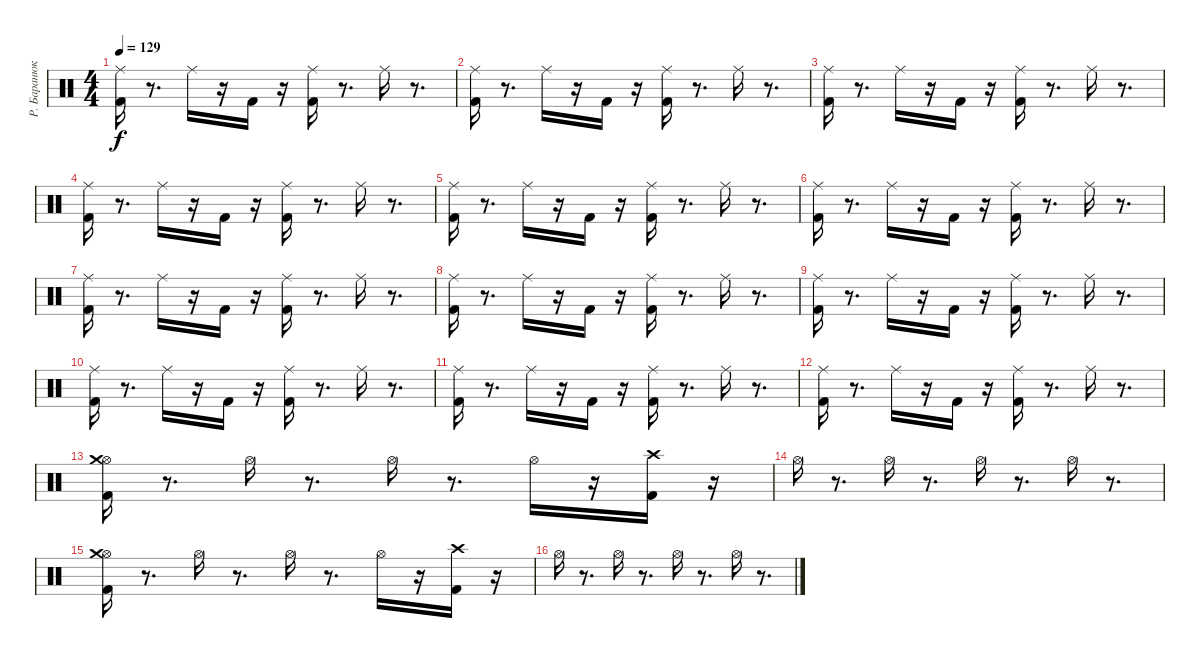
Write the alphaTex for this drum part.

\track ("Р. Баранюк" "Р. Баранюк") {instrument percussion}
\staff {score}
\articulation defaults
\ts (4 4)
\tempo 129
\clef neutral
\ks c
("Kick (hit) 2" "Ride (middle)").16{dy f} r.8{d} "Ride (middle)".16 r.16 "Kick (hit) 2".16 r.16 ("Kick (hit) 2" "Ride (middle)").16 r.8{d} "Ride (middle)".16 r.8{d} |
("Kick (hit) 2" "Ride (middle)").16 r.8{d} "Ride (middle)".16 r.16 "Kick (hit) 2".16 r.16 ("Kick (hit) 2" "Ride (middle)").16 r.8{d} "Ride (middle)".16 r.8{d} |
("Kick (hit) 2" "Ride (middle)").16 r.8{d} "Ride (middle)".16 r.16 "Kick (hit) 2".16 r.16 ("Kick (hit) 2" "Ride (middle)").16 r.8{d} "Ride (middle)".16 r.8{d} |
("Kick (hit) 2" "Ride (middle)").16 r.8{d} "Ride (middle)".16 r.16 "Kick (hit) 2".16 r.16 ("Kick (hit) 2" "Ride (middle)").16 r.8{d} "Ride (middle)".16 r.8{d} |
("Kick (hit) 2" "Ride (middle)").16 r.8{d} "Ride (middle)".16 r.16 "Kick (hit) 2".16 r.16 ("Kick (hit) 2" "Ride (middle)").16 r.8{d} "Ride (middle)".16 r.8{d} |
("Kick (hit) 2" "Ride (middle)").16 r.8{d} "Ride (middle)".16 r.16 "Kick (hit) 2".16 r.16 ("Kick (hit) 2" "Ride (middle)").16 r.8{d} "Ride (middle)".16 r.8{d} |
("Kick (hit) 2" "Ride (middle)").16 r.8{d} "Ride (middle)".16 r.16 "Kick (hit) 2".16 r.16 ("Kick (hit) 2" "Ride (middle)").16 r.8{d} "Ride (middle)".16 r.8{d} |
("Ride (middle)" "Kick (hit) 2").16 r.8{d} "Ride (middle)".16 r.16 "Kick (hit) 2".16 r.16 ("Kick (hit) 2" "Ride (middle)").16 r.8{d} "Ride (middle)".16 r.8{d} |
("Kick (hit) 2" "Ride (middle)").16 r.8{d} "Ride (middle)".16 r.16 "Kick (hit) 2".16 r.16 ("Ride (middle)" "Kick (hit) 2").16 r.8{d} "Ride (middle)".16 r.8{d} |
("Kick (hit) 2" "Ride (middle)").16 r.8{d} "Ride (middle)".16 r.16 "Kick (hit) 2".16 r.16 ("Ride (middle)" "Kick (hit) 2").16 r.8{d} "Ride (middle)".16 r.8{d} |
("Kick (hit) 2" "Ride (middle)").16 r.8{d} "Ride (middle)".16 r.16 "Kick (hit) 2".16 r.16 ("Ride (middle)" "Kick (hit) 2").16 r.8{d} "Ride (middle)".16 r.8{d} |
("Ride (middle)" "Kick (hit) 2").16 r.8{d} "Ride (middle)".16 r.16 "Kick (hit) 2".16 r.16 ("Ride (middle)" "Kick (hit) 2").16 r.8{d} "Ride (middle)".16 r.8{d} |
("Hi-Hat (open)" "Crash medium (hit)" "Kick (hit) 2").16 r.8{d} "Hi-Hat (open)".16 r.8{d} "Hi-Hat (open)".16 r.8{d} "Hi-Hat (open)".16 r.16 ("Crash high (hit)" "Kick (hit) 2").16 r.16 |
"Hi-Hat (open)".16 r.8{d} "Hi-Hat (open)".16 r.8{d} "Hi-Hat (open)".16 r.8{d} "Hi-Hat (open)".16 r.8{d} |
("Hi-Hat (open)" "Crash medium (hit)" "Kick (hit) 2").16 r.8{d} "Hi-Hat (open)".16 r.8{d} "Hi-Hat (open)".16 r.8{d} "Hi-Hat (open)".16 r.16 ("Crash high (hit)" "Kick (hit) 2").16 r.16 |
"Hi-Hat (open)".16 r.8{d} "Hi-Hat (open)".16 r.8{d} "Hi-Hat (open)".16 r.8{d} "Hi-Hat (open)".16 r.8{d}
